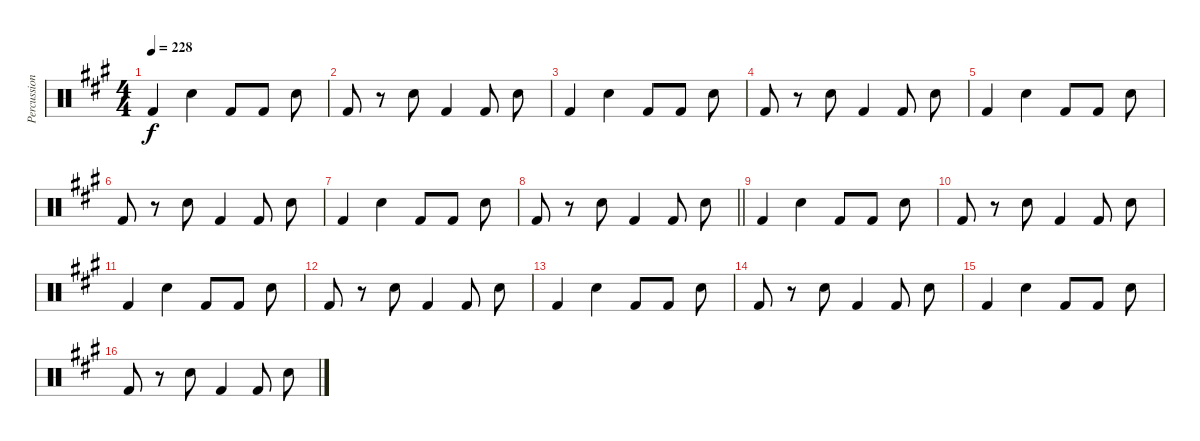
\track ("Percussion" "Percussion") {instrument percussion}
\staff {score}
\articulation defaults
\ts (4 4)
\tempo 228
\clef neutral
\ks a "Kick (hit) 2".4{dy f} "Snare (hit) 2".4 "Kick (hit) 2".8 "Kick (hit) 2".8 "Snare (hit) 2".8
|
"Kick (hit) 2".8 r.8 "Snare (hit) 2".8 "Kick (hit) 2".4 "Kick (hit) 2".8 "Snare (hit) 2".8 |
"Kick (hit) 2".4 "Snare (hit) 2".4 "Kick (hit) 2".8 "Kick (hit) 2".8 "Snare (hit) 2".8 |
"Kick (hit) 2".8 r.8 "Snare (hit) 2".8 "Kick (hit) 2".4 "Kick (hit) 2".8 "Snare (hit) 2".8 |
"Kick (hit) 2".4 "Snare (hit) 2".4 "Kick (hit) 2".8 "Kick (hit) 2".8 "Snare (hit) 2".8 |
"Kick (hit) 2".8 r.8 "Snare (hit) 2".8 "Kick (hit) 2".4 "Kick (hit) 2".8 "Snare (hit) 2".8 |
"Kick (hit) 2".4 "Snare (hit) 2".4 "Kick (hit) 2".8 "Kick (hit) 2".8 "Snare (hit) 2".8 |
\barLineRight lightlight "Kick (hit) 2".8
r.8 "Snare (hit) 2".8 "Kick (hit) 2".4 "Kick (hit) 2".8 "Snare (hit) 2".8 |
"Kick (hit) 2".4 "Snare (hit) 2".4 "Kick (hit) 2".8 "Kick (hit) 2".8 "Snare (hit) 2".8 |
"Kick (hit) 2".8 r.8 "Snare (hit) 2".8 "Kick (hit) 2".4 "Kick (hit) 2".8 "Snare (hit) 2".8 |
"Kick (hit) 2".4 "Snare (hit) 2".4 "Kick (hit) 2".8 "Kick (hit) 2".8 "Snare (hit) 2".8 |
"Kick (hit) 2".8 r.8 "Snare (hit) 2".8 "Kick (hit) 2".4 "Kick (hit) 2".8 "Snare (hit) 2".8 |
"Kick (hit) 2".4 "Snare (hit) 2".4 "Kick (hit) 2".8 "Kick (hit) 2".8 "Snare (hit) 2".8 |
"Kick (hit) 2".8 r.8 "Snare (hit) 2".8 "Kick (hit) 2".4 "Kick (hit) 2".8 "Snare (hit) 2".8 |
"Kick (hit) 2".4 "Snare (hit) 2".4 "Kick (hit) 2".8 "Kick (hit) 2".8 "Snare (hit) 2".8 |
"Kick (hit) 2".8 r.8 "Snare (hit) 2".8 "Kick (hit) 2".4 "Kick (hit) 2".8 "Snare (hit) 2".8
